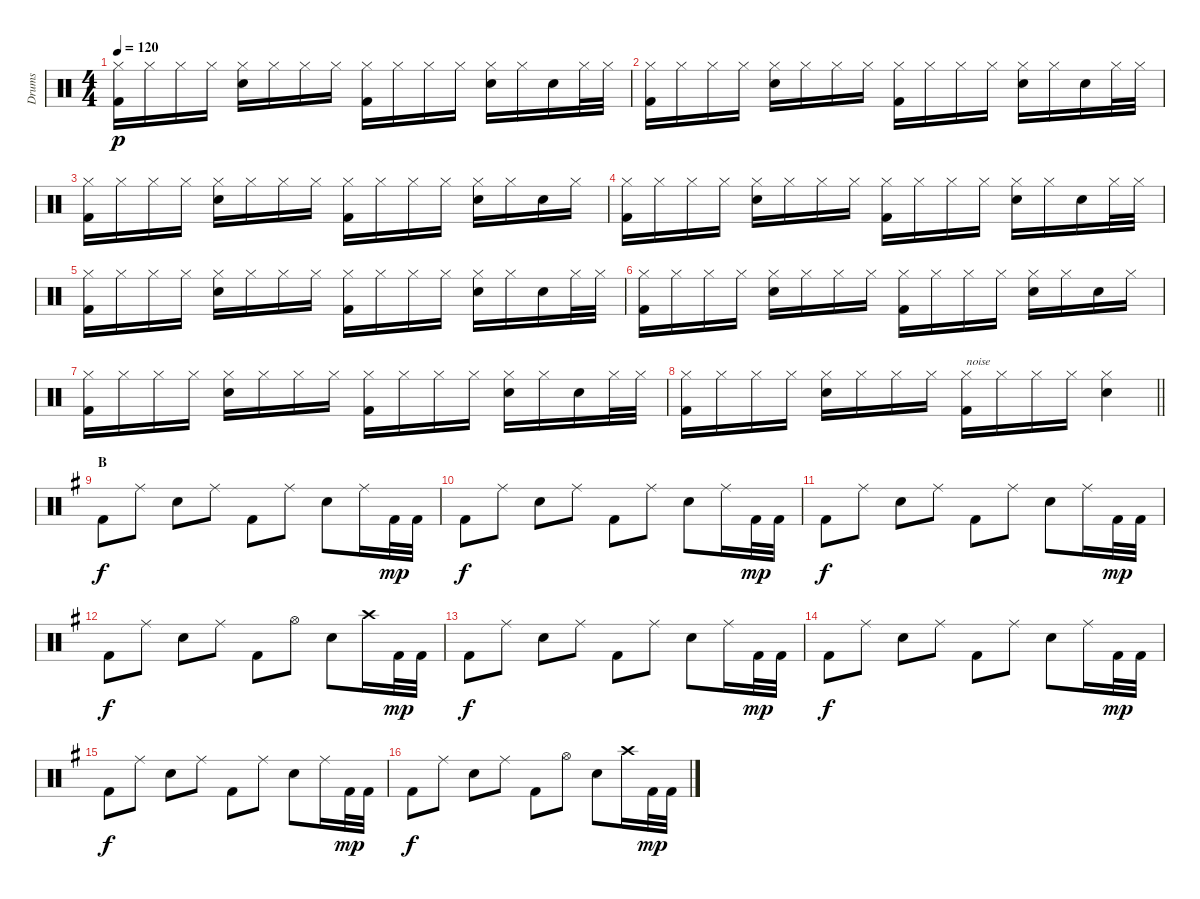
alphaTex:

\track ("Drums" "Drums") {instrument percussion}
\staff
\articulation defaults
\ts (4 4)
\tempo 120
\clef neutral
\ks c
("Hi-Hat (closed)" "Kick (hit) 2").16{dy p} "Hi-Hat (closed)".16 "Hi-Hat (closed)".16 "Hi-Hat (closed)".16 ("Hi-Hat (closed)" "Electric Snare (hit)").16 "Hi-Hat (closed)".16 "Hi-Hat (closed)".16 "Hi-Hat (closed)".16 ("Hi-Hat (closed)" "Kick (hit) 2").16 "Hi-Hat (closed)".16 "Hi-Hat (closed)".16 "Hi-Hat (closed)".16 ("Hi-Hat (closed)" "Electric Snare (hit)").16 "Hi-Hat (closed)".16 "Snare (hit)".16 "Hi-Hat (closed)".32 "Hi-Hat (closed)".32 |
("Hi-Hat (closed)" "Kick (hit) 2").16 "Hi-Hat (closed)".16 "Hi-Hat (closed)".16 "Hi-Hat (closed)".16 ("Hi-Hat (closed)" "Electric Snare (hit)").16 "Hi-Hat (closed)".16 "Hi-Hat (closed)".16 "Hi-Hat (closed)".16 ("Hi-Hat (closed)" "Kick (hit) 2").16 "Hi-Hat (closed)".16 "Hi-Hat (closed)".16 "Hi-Hat (closed)".16 ("Hi-Hat (closed)" "Electric Snare (hit)").16 "Hi-Hat (closed)".16 "Snare (hit)".16 "Hi-Hat (closed)".32 "Hi-Hat (closed)".32 |
("Hi-Hat (closed)" "Kick (hit) 2").16 "Hi-Hat (closed)".16 "Hi-Hat (closed)".16 "Hi-Hat (closed)".16 ("Hi-Hat (closed)" "Electric Snare (hit)").16 "Hi-Hat (closed)".16 "Hi-Hat (closed)".16 "Hi-Hat (closed)".16 ("Hi-Hat (closed)" "Kick (hit) 2").16 "Hi-Hat (closed)".16 "Hi-Hat (closed)".16 "Hi-Hat (closed)".16 ("Hi-Hat (closed)" "Electric Snare (hit)").16 "Hi-Hat (closed)".16 "Snare (hit)".16 "Hi-Hat (closed)".16 |
("Hi-Hat (closed)" "Kick (hit) 2").16 "Hi-Hat (closed)".16 "Hi-Hat (closed)".16 "Hi-Hat (closed)".16 ("Hi-Hat (closed)" "Electric Snare (hit)").16 "Hi-Hat (closed)".16 "Hi-Hat (closed)".16 "Hi-Hat (closed)".16 ("Hi-Hat (closed)" "Kick (hit) 2").16 "Hi-Hat (closed)".16 "Hi-Hat (closed)".16 "Hi-Hat (closed)".16 ("Hi-Hat (closed)" "Electric Snare (hit)").16 "Hi-Hat (closed)".16 "Snare (hit)".16 "Hi-Hat (closed)".32 "Hi-Hat (closed)".32 |
("Hi-Hat (closed)" "Kick (hit) 2").16 "Hi-Hat (closed)".16 "Hi-Hat (closed)".16 "Hi-Hat (closed)".16 ("Hi-Hat (closed)" "Electric Snare (hit)").16 "Hi-Hat (closed)".16 "Hi-Hat (closed)".16 "Hi-Hat (closed)".16 ("Hi-Hat (closed)" "Kick (hit) 2").16 "Hi-Hat (closed)".16 "Hi-Hat (closed)".16 "Hi-Hat (closed)".16 ("Hi-Hat (closed)" "Electric Snare (hit)").16 "Hi-Hat (closed)".16 "Snare (hit)".16 "Hi-Hat (closed)".32 "Hi-Hat (closed)".32 |
("Hi-Hat (closed)" "Kick (hit) 2").16 "Hi-Hat (closed)".16 "Hi-Hat (closed)".16 "Hi-Hat (closed)".16 ("Hi-Hat (closed)" "Electric Snare (hit)").16 "Hi-Hat (closed)".16 "Hi-Hat (closed)".16 "Hi-Hat (closed)".16 ("Hi-Hat (closed)" "Kick (hit) 2").16 "Hi-Hat (closed)".16 "Hi-Hat (closed)".16 "Hi-Hat (closed)".16 ("Hi-Hat (closed)" "Electric Snare (hit)").16 "Hi-Hat (closed)".16 "Snare (hit)".16 "Hi-Hat (closed)".16 |
("Hi-Hat (closed)" "Kick (hit) 2").16 "Hi-Hat (closed)".16 "Hi-Hat (closed)".16 "Hi-Hat (closed)".16 ("Hi-Hat (closed)" "Electric Snare (hit)").16 "Hi-Hat (closed)".16 "Hi-Hat (closed)".16 "Hi-Hat (closed)".16 ("Hi-Hat (closed)" "Kick (hit) 2").16 "Hi-Hat (closed)".16 "Hi-Hat (closed)".16 "Hi-Hat (closed)".16 ("Hi-Hat (closed)" "Electric Snare (hit)").16 "Hi-Hat (closed)".16 "Snare (hit)".16 "Hi-Hat (closed)".32 "Hi-Hat (closed)".32 |
\barLineRight lightlight
("Hi-Hat (closed)" "Kick (hit) 2").16 "Hi-Hat (closed)".16 "Hi-Hat (closed)".16 "Hi-Hat (closed)".16 ("Hi-Hat (closed)" "Electric Snare (hit)").16 "Hi-Hat (closed)".16 "Hi-Hat (closed)".16 "Hi-Hat (closed)".16 ("Hi-Hat (closed)" "Kick (hit) 2").16{txt "noise"} "Hi-Hat (closed)".16 "Hi-Hat (closed)".16 "Hi-Hat (closed)".16 ("Hi-Hat (closed)" "Electric Snare (hit)").4 |
\section ("" "B")
\ks g "Kick (hit) 2".8{dy f} "Ride (middle)".8 "Electric Snare (hit)".8 "Ride (middle)".8 "Kick (hit) 2".8 "Ride (middle)".8 "Electric Snare (hit)".8 "Ride (middle)".16 "Kick (hit) 2".32{dy mp} "Kick (hit) 2".32
|
"Kick (hit) 2".8{dy f} "Ride (middle)".8 "Electric Snare (hit)".8 "Ride (middle)".8 "Kick (hit) 2".8 "Ride (middle)".8 "Electric Snare (hit)".8 "Ride (middle)".16 "Kick (hit) 2".32{dy mp} "Kick (hit) 2".32 |
"Kick (hit) 2".8{dy f} "Ride (middle)".8 "Electric Snare (hit)".8 "Ride (middle)".8 "Kick (hit) 2".8 "Ride (middle)".8 "Electric Snare (hit)".8 "Ride (middle)".16 "Kick (hit) 2".32{dy mp} "Kick (hit) 2".32 |
"Kick (hit) 2".8{dy f} "Ride (middle)".8 "Electric Snare (hit)".8 "Ride (middle)".8 "Kick (hit) 2".8 "Hi-Hat (open)".8 "Electric Snare (hit)".8 "Crash high (hit)".16 "Kick (hit) 2".32{dy mp} "Kick (hit) 2".32 |
"Kick (hit) 2".8{dy f} "Ride (middle)".8 "Electric Snare (hit)".8 "Ride (middle)".8 "Kick (hit) 2".8 "Ride (middle)".8 "Electric Snare (hit)".8 "Ride (middle)".16 "Kick (hit) 2".32{dy mp} "Kick (hit) 2".32 |
"Kick (hit) 2".8{dy f} "Ride (middle)".8 "Electric Snare (hit)".8 "Ride (middle)".8 "Kick (hit) 2".8 "Ride (middle)".8 "Electric Snare (hit)".8 "Ride (middle)".16 "Kick (hit) 2".32{dy mp} "Kick (hit) 2".32 |
"Kick (hit) 2".8{dy f} "Ride (middle)".8 "Electric Snare (hit)".8 "Ride (middle)".8 "Kick (hit) 2".8 "Ride (middle)".8 "Electric Snare (hit)".8 "Ride (middle)".16 "Kick (hit) 2".32{dy mp} "Kick (hit) 2".32 |
"Kick (hit) 2".8{dy f} "Ride (middle)".8 "Electric Snare (hit)".8 "Ride (middle)".8 "Kick (hit) 2".8 "Hi-Hat (open)".8 "Electric Snare (hit)".8 "Crash high (hit)".16 "Kick (hit) 2".32{dy mp} "Kick (hit) 2".32
